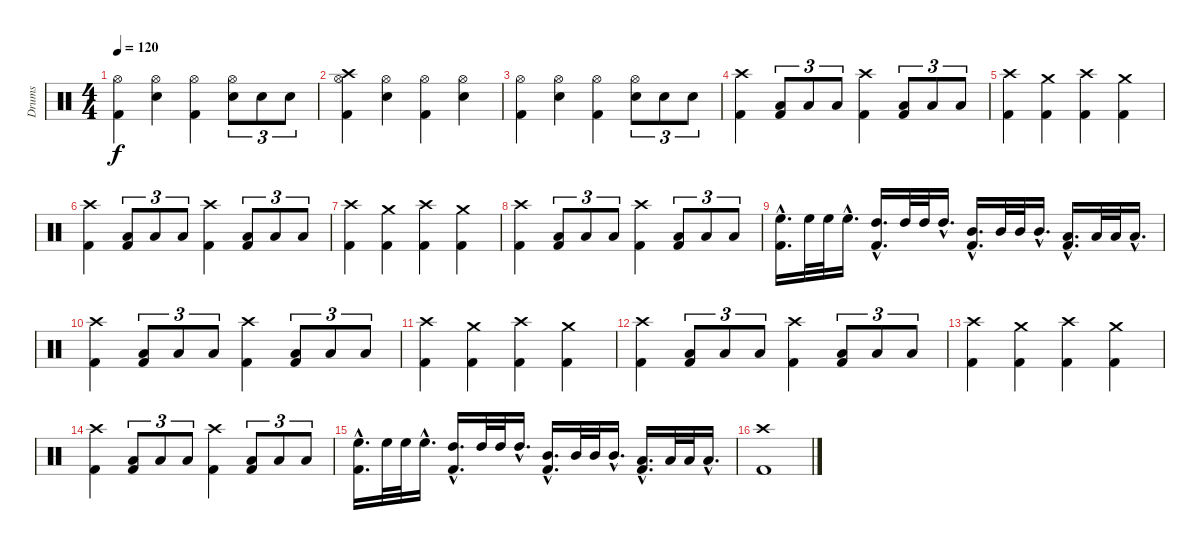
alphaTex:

\track ("Drums" "Drums") {instrument percussion}
\staff {score}
\articulation defaults
\ts (4 4)
\tempo 120
\clef neutral
\ks c
("Hi-Hat (open)" "Kick (hit) 2").4{dy f} ("Hi-Hat (open)" "Snare (hit) 2").4 ("Hi-Hat (open)" "Kick (hit) 2").4 ("Hi-Hat (open)" "Snare (hit) 2").8{tu (3 2)} "Snare (hit) 2".8{tu (3 2)} "Snare (hit) 2".8{tu (3 2)} |
("Crash high (hit)" "Hi-Hat (open)" "Kick (hit) 2").4 ("Hi-Hat (open)" "Snare (hit) 2").4 ("Hi-Hat (open)" "Kick (hit) 2").4 ("Hi-Hat (open)" "Snare (hit) 2").4 |
("Hi-Hat (open)" "Kick (hit) 2").4 ("Hi-Hat (open)" "Snare (hit) 2").4 ("Hi-Hat (open)" "Kick (hit) 2").4 ("Hi-Hat (open)" "Snare (hit) 2").8{tu (3 2)} "Snare (hit) 2".8{tu (3 2)} "Snare (hit) 2".8{tu (3 2)} |
("Crash high (hit)" "Kick (hit) 2").4 ("Low Floor Tom (hit)" "Kick (hit) 2").8{tu (3 2)} "Low Floor Tom (hit)".8{tu (3 2)} "Low Floor Tom (hit)".8{tu (3 2)} ("Crash high (hit)" "Kick (hit) 2").4 ("Low Floor Tom (hit)" "Kick (hit) 2").8{tu (3 2)} "Low Floor Tom (hit)".8{tu (3 2)} "Low Floor Tom (hit)".8{tu (3 2)} |
("Crash high (hit)" "Kick (hit) 2").4 ("Crash medium (hit)" "Kick (hit) 2").4 ("Crash high (hit)" "Kick (hit) 2").4 ("Crash medium (hit)" "Kick (hit) 2").4 |
("Crash high (hit)" "Kick (hit) 2").4 ("Low Floor Tom (hit)" "Kick (hit) 2").8{tu (3 2)} "Low Floor Tom (hit)".8{tu (3 2)} "Low Floor Tom (hit)".8{tu (3 2)} ("Crash high (hit)" "Kick (hit) 2").4 ("Low Floor Tom (hit)" "Kick (hit) 2").8{tu (3 2)} "Low Floor Tom (hit)".8{tu (3 2)} "Low Floor Tom (hit)".8{tu (3 2)} |
("Crash high (hit)" "Kick (hit) 2").4 ("Crash medium (hit)" "Kick (hit) 2").4 ("Crash high (hit)" "Kick (hit) 2").4 ("Crash medium (hit)" "Kick (hit) 2").4 |
("Crash high (hit)" "Kick (hit) 2").4 ("Low Floor Tom (hit)" "Kick (hit) 2").8{tu (3 2)} "Low Floor Tom (hit)".8{tu (3 2)} "Low Floor Tom (hit)".8{tu (3 2)} ("Crash high (hit)" "Kick (hit) 2").4 ("Low Floor Tom (hit)" "Kick (hit) 2").8{tu (3 2)} "Low Floor Tom (hit)".8{tu (3 2)} "Low Floor Tom (hit)".8{tu (3 2)} |
("High Floor Tom (hit)"{hac} "Kick (hit) 2"{hac}).16{d} "High Floor Tom (hit)".32 "High Floor Tom (hit)".32 "High Floor Tom (hit)"{hac}.16{d} ("High Tom (hit)"{hac} "Kick (hit) 2"{hac}).16{d} "High Tom (hit)".32 "High Tom (hit)".32 "High Tom (hit)"{hac}.16{d} ("Mid Tom (hit)"{hac} "Kick (hit) 2"{hac}).16{d} "Mid Tom (hit)".32 "Mid Tom (hit)".32 "Mid Tom (hit)"{hac}.16{d} ("Low Tom (hit)"{hac} "Kick (hit) 2"{hac}).16{d} "Low Tom (hit)".32 "Low Tom (hit)".32 "Low Tom (hit)"{hac}.16{d} |
("Crash high (hit)" "Kick (hit) 2").4 ("Low Floor Tom (hit)" "Kick (hit) 2").8{tu (3 2)} "Low Floor Tom (hit)".8{tu (3 2)} "Low Floor Tom (hit)".8{tu (3 2)} ("Crash high (hit)" "Kick (hit) 2").4 ("Low Floor Tom (hit)" "Kick (hit) 2").8{tu (3 2)} "Low Floor Tom (hit)".8{tu (3 2)} "Low Floor Tom (hit)".8{tu (3 2)} |
("Crash high (hit)" "Kick (hit) 2").4 ("Crash medium (hit)" "Kick (hit) 2").4 ("Crash high (hit)" "Kick (hit) 2").4 ("Crash medium (hit)" "Kick (hit) 2").4 |
("Crash high (hit)" "Kick (hit) 2").4 ("Low Floor Tom (hit)" "Kick (hit) 2").8{tu (3 2)} "Low Floor Tom (hit)".8{tu (3 2)} "Low Floor Tom (hit)".8{tu (3 2)} ("Crash high (hit)" "Kick (hit) 2").4 ("Low Floor Tom (hit)" "Kick (hit) 2").8{tu (3 2)} "Low Floor Tom (hit)".8{tu (3 2)} "Low Floor Tom (hit)".8{tu (3 2)} |
("Crash high (hit)" "Kick (hit) 2").4 ("Crash medium (hit)" "Kick (hit) 2").4 ("Crash high (hit)" "Kick (hit) 2").4 ("Crash medium (hit)" "Kick (hit) 2").4 |
("Crash high (hit)" "Kick (hit) 2").4 ("Low Floor Tom (hit)" "Kick (hit) 2").8{tu (3 2)} "Low Floor Tom (hit)".8{tu (3 2)} "Low Floor Tom (hit)".8{tu (3 2)} ("Crash high (hit)" "Kick (hit) 2").4 ("Low Floor Tom (hit)" "Kick (hit) 2").8{tu (3 2)} "Low Floor Tom (hit)".8{tu (3 2)} "Low Floor Tom (hit)".8{tu (3 2)} |
("High Floor Tom (hit)"{hac} "Kick (hit) 2"{hac}).16{d} "High Floor Tom (hit)".32 "High Floor Tom (hit)".32 "High Floor Tom (hit)"{hac}.16{d} ("High Tom (hit)"{hac} "Kick (hit) 2"{hac}).16{d} "High Tom (hit)".32 "High Tom (hit)".32 "High Tom (hit)"{hac}.16{d} ("Mid Tom (hit)"{hac} "Kick (hit) 2"{hac}).16{d} "Mid Tom (hit)".32 "Mid Tom (hit)".32 "Mid Tom (hit)"{hac}.16{d} ("Low Tom (hit)"{hac} "Kick (hit) 2"{hac}).16{d} "Low Tom (hit)".32 "Low Tom (hit)".32 "Low Tom (hit)"{hac}.16{d} |
("Crash high (hit)" "Kick (hit) 2").1
